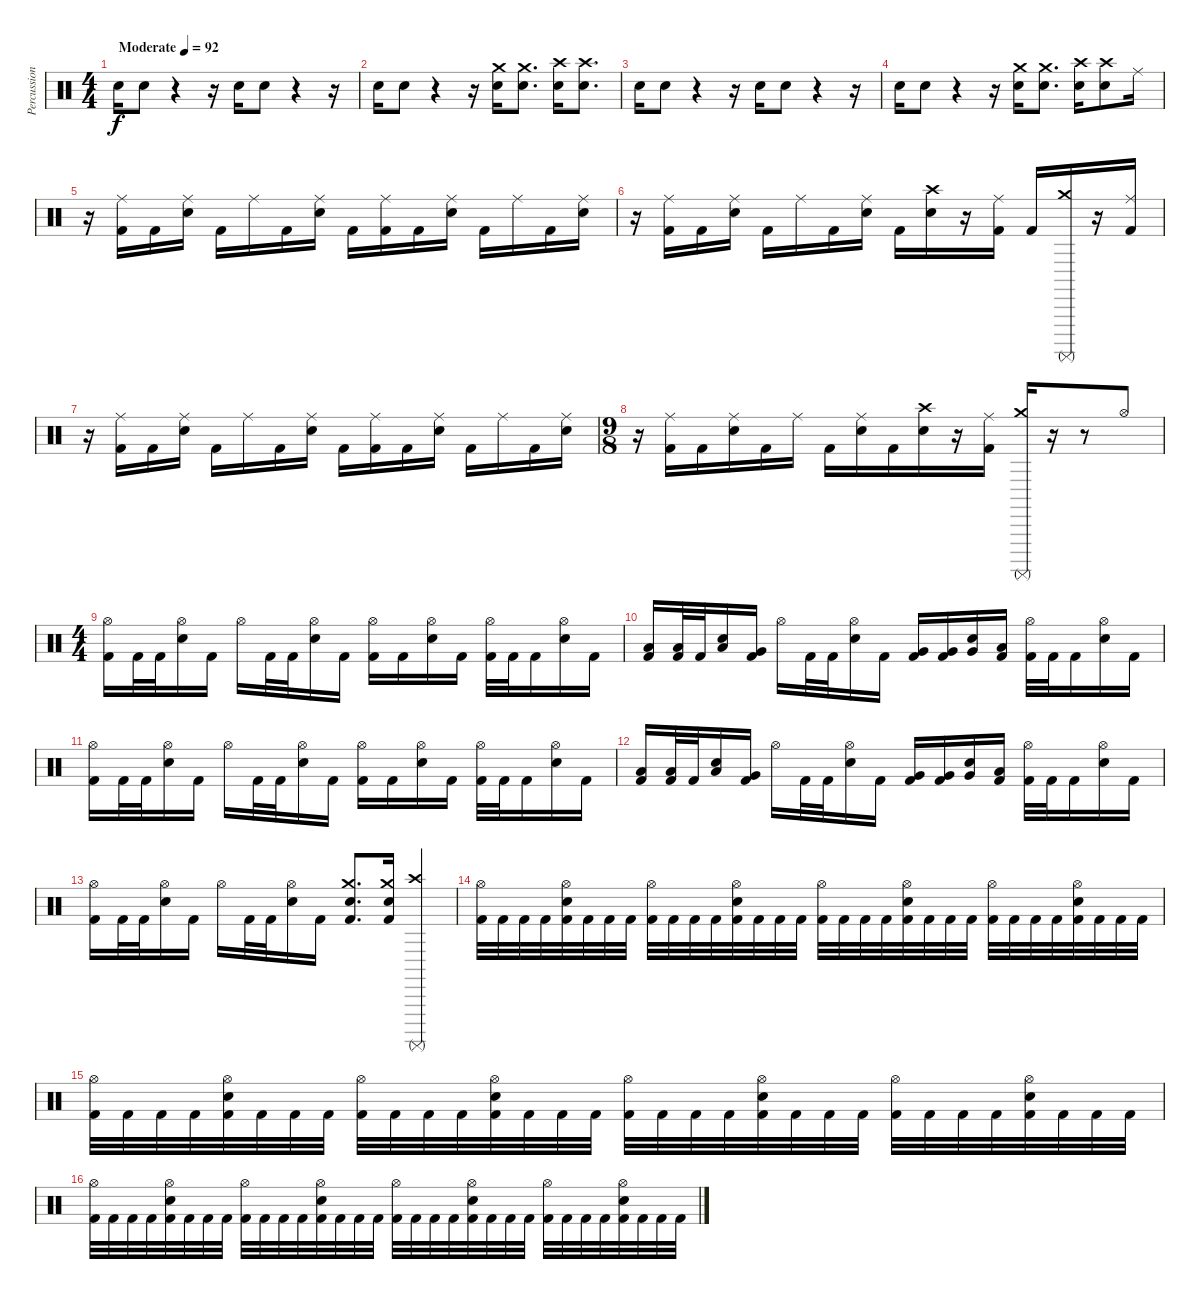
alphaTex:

\track ("Percussion" "Percussion") {instrument percussion}
\staff {score}
\articulation defaults
\ts (4 4)
\tempo (92 "Moderate")
\clef neutral
\ks c "Snare (hit) 2".16{dy f} "Snare (hit) 2".8
r.4 r.16 "Snare (hit) 2".16 "Snare (hit) 2".8 r.4 r.16 |
"Snare (hit) 2".16 "Snare (hit) 2".8 r.4 r.16 ("Crash medium (hit)" "Snare (hit) 2").16 ("Crash medium (hit)" "Snare (hit) 2").8{d} ("Crash high (hit)" "Snare (hit) 2").16 ("Crash high (hit)" "Snare (hit) 2").8{d} |
"Snare (hit) 2".16 "Snare (hit) 2".8 r.4 r.16 "Snare (hit) 2".16 "Snare (hit) 2".8 r.4 r.16 |
"Snare (hit) 2".16 "Snare (hit) 2".8 r.4 r.16 ("Crash medium (hit)" "Snare (hit) 2").16 ("Crash medium (hit)" "Snare (hit) 2").8{d} ("Crash high (hit)" "Snare (hit) 2").16 ("Crash high (hit)" "Snare (hit) 2").8 "Ride (middle)".16 |
r.16 ("Kick (hit) 2" "Ride (middle)").16 "Kick (hit) 2".16 ("Electric Snare (hit)" "Ride (middle)").16 "Kick (hit) 2".16 "Ride (middle)".16 "Kick (hit) 2".16 ("Electric Snare (hit)" "Ride (middle)").16 "Kick (hit) 2".16 ("Kick (hit) 2" "Ride (middle)").16 "Kick (hit) 2".16 ("Electric Snare (hit)" "Ride (middle)").16 "Kick (hit) 2".16 "Ride (middle)".16 "Kick (hit) 2".16 ("Electric Snare (hit)" "Ride (middle)").16 |
r.16 ("Kick (hit) 2" "Ride (middle)").16 "Kick (hit) 2".16 ("Electric Snare (hit)" "Ride (middle)").16 "Kick (hit) 2".16 "Ride (middle)".16 "Kick (hit) 2".16 ("Electric Snare (hit)" "Ride (middle)").16 "Kick (hit) 2".16 ("Electric Snare (hit)" "Crash high (hit)").16 r.16 ("Kick (hit) 2" "Ride (middle)").16 "Kick (hit) 2".16 ("Surdo (mute)" "Crash medium (hit)").16 r.16 ("Kick (hit) 2" "Ride (middle)").16 |
r.16 ("Kick (hit) 2" "Ride (middle)").16 "Kick (hit) 2".16 ("Electric Snare (hit)" "Ride (middle)").16 "Kick (hit) 2".16 "Ride (middle)".16 "Kick (hit) 2".16 ("Electric Snare (hit)" "Ride (middle)").16 "Kick (hit) 2".16 ("Kick (hit) 2" "Ride (middle)").16 "Kick (hit) 2".16 ("Electric Snare (hit)" "Ride (middle)").16 "Kick (hit) 2".16 "Ride (middle)".16 "Kick (hit) 2".16 ("Electric Snare (hit)" "Ride (middle)").16 |
\ts (9 8)
r.16 ("Kick (hit) 2" "Ride (middle)").16 "Kick (hit) 2".16 ("Electric Snare (hit)" "Ride (middle)").16 "Kick (hit) 2".16 "Ride (middle)".16 "Kick (hit) 2".16 ("Electric Snare (hit)" "Ride (middle)").16 "Kick (hit) 2".16 ("Electric Snare (hit)" "Crash high (hit)").16 r.16 ("Kick (hit) 2" "Ride (middle)").16 ("Surdo (mute)" "Crash medium (hit)").16 r.16 r.8 "Hi-Hat (open)".8 |
\ts (4 4)
("Kick (hit) 2" "Hi-Hat (open)").16 "Kick (hit) 2".32 "Kick (hit) 2".32 ("Electric Snare (hit)" "Hi-Hat (open)").16 "Kick (hit) 2".16 "Hi-Hat (open)".16 "Kick (hit) 2".32 "Kick (hit) 2".32 ("Electric Snare (hit)" "Hi-Hat (open)").16 "Kick (hit) 2".16 ("Kick (hit) 2" "Hi-Hat (open)").16 "Kick (hit) 2".16 ("Electric Snare (hit)" "Hi-Hat (open)").16 "Kick (hit) 2".16 ("Kick (hit) 2" "Hi-Hat (open)").32 "Kick (hit) 2".32 "Kick (hit) 2".16 ("Electric Snare (hit)" "Hi-Hat (open)").16 "Kick (hit) 2".16 |
("Kick (hit) 2" "Low Tom (hit)").16 ("Kick (hit) 2" "Low Tom (hit)").32 "Kick (hit) 2".32 ("Electric Snare (hit)" "Low Tom (hit)").16 ("Kick (hit) 2" "Very Low Tom (hit)").16 "Hi-Hat (open)".16 "Kick (hit) 2".32 "Kick (hit) 2".32 ("Electric Snare (hit)" "Hi-Hat (open)").16 "Kick (hit) 2".16 ("Kick (hit) 2" "Very Low Tom (hit)").16 ("Kick (hit) 2" "Very Low Tom (hit)").16 ("Electric Snare (hit)" "Very Low Tom (hit)").16 ("Kick (hit) 2" "Low Floor Tom (hit)").16 ("Kick (hit) 2" "Hi-Hat (open)").32 "Kick (hit) 2".32 "Kick (hit) 2".16 ("Electric Snare (hit)" "Hi-Hat (open)").16 "Kick (hit) 2".16 |
("Kick (hit) 2" "Hi-Hat (open)").16 "Kick (hit) 2".32 "Kick (hit) 2".32 ("Electric Snare (hit)" "Hi-Hat (open)").16 "Kick (hit) 2".16 "Hi-Hat (open)".16 "Kick (hit) 2".32 "Kick (hit) 2".32 ("Electric Snare (hit)" "Hi-Hat (open)").16 "Kick (hit) 2".16 ("Kick (hit) 2" "Hi-Hat (open)").16 "Kick (hit) 2".16 ("Electric Snare (hit)" "Hi-Hat (open)").16 "Kick (hit) 2".16 ("Kick (hit) 2" "Hi-Hat (open)").32 "Kick (hit) 2".32 "Kick (hit) 2".16 ("Electric Snare (hit)" "Hi-Hat (open)").16 "Kick (hit) 2".16 |
("Kick (hit) 2" "Low Tom (hit)").16 ("Kick (hit) 2" "Low Tom (hit)").32 "Kick (hit) 2".32 ("Electric Snare (hit)" "Low Tom (hit)").16 ("Kick (hit) 2" "Very Low Tom (hit)").16 "Hi-Hat (open)".16 "Kick (hit) 2".32 "Kick (hit) 2".32 ("Electric Snare (hit)" "Hi-Hat (open)").16 "Kick (hit) 2".16 ("Kick (hit) 2" "Very Low Tom (hit)").16 ("Kick (hit) 2" "Very Low Tom (hit)").16 ("Electric Snare (hit)" "Very Low Tom (hit)").16 ("Kick (hit) 2" "Low Floor Tom (hit)").16 ("Kick (hit) 2" "Hi-Hat (open)").32 "Kick (hit) 2".32 "Kick (hit) 2".16 ("Electric Snare (hit)" "Hi-Hat (open)").16 "Kick (hit) 2".16 |
("Kick (hit) 2" "Hi-Hat (open)").16 "Kick (hit) 2".32 "Kick (hit) 2".32 ("Electric Snare (hit)" "Hi-Hat (open)").16 "Kick (hit) 2".16 "Hi-Hat (open)".16 "Kick (hit) 2".32 "Kick (hit) 2".32 ("Electric Snare (hit)" "Hi-Hat (open)").16 "Kick (hit) 2".16 ("Snare (hit) 2" "Crash medium (hit)" "Kick (hit) 2").8{d} ("Snare (hit) 2" "Crash medium (hit)" "Kick (hit) 2").16 ("Surdo (mute)" "Crash high (hit)").4 |
("Kick (hit) 2" "Hi-Hat (open)").32 "Kick (hit) 2".32 "Kick (hit) 2".32 "Kick (hit) 2".32 ("Kick (hit) 2" "Electric Snare (hit)" "Hi-Hat (open)").32 "Kick (hit) 2".32 "Kick (hit) 2".32 "Kick (hit) 2".32 ("Kick (hit) 2" "Hi-Hat (open)").32 "Kick (hit) 2".32 "Kick (hit) 2".32 "Kick (hit) 2".32 ("Kick (hit) 2" "Electric Snare (hit)" "Hi-Hat (open)").32 "Kick (hit) 2".32 "Kick (hit) 2".32 "Kick (hit) 2".32 ("Kick (hit) 2" "Hi-Hat (open)").32 "Kick (hit) 2".32 "Kick (hit) 2".32 "Kick (hit) 2".32 ("Kick (hit) 2" "Electric Snare (hit)" "Hi-Hat (open)").32 "Kick (hit) 2".32 "Kick (hit) 2".32 "Kick (hit) 2".32 ("Kick (hit) 2" "Hi-Hat (open)").32 "Kick (hit) 2".32 "Kick (hit) 2".32 "Kick (hit) 2".32 ("Kick (hit) 2" "Electric Snare (hit)" "Hi-Hat (open)").32 "Kick (hit) 2".32 "Kick (hit) 2".32 "Kick (hit) 2".32 |
("Kick (hit) 2" "Hi-Hat (open)").32 "Kick (hit) 2".32 "Kick (hit) 2".32 "Kick (hit) 2".32 ("Kick (hit) 2" "Electric Snare (hit)" "Hi-Hat (open)").32 "Kick (hit) 2".32 "Kick (hit) 2".32 "Kick (hit) 2".32 ("Kick (hit) 2" "Hi-Hat (open)").32 "Kick (hit) 2".32 "Kick (hit) 2".32 "Kick (hit) 2".32 ("Kick (hit) 2" "Electric Snare (hit)" "Hi-Hat (open)").32 "Kick (hit) 2".32 "Kick (hit) 2".32 "Kick (hit) 2".32 ("Kick (hit) 2" "Hi-Hat (open)").32 "Kick (hit) 2".32 "Kick (hit) 2".32 "Kick (hit) 2".32 ("Kick (hit) 2" "Electric Snare (hit)" "Hi-Hat (open)").32 "Kick (hit) 2".32 "Kick (hit) 2".32 "Kick (hit) 2".32 ("Kick (hit) 2" "Hi-Hat (open)").32 "Kick (hit) 2".32 "Kick (hit) 2".32 "Kick (hit) 2".32 ("Kick (hit) 2" "Electric Snare (hit)" "Hi-Hat (open)").32 "Kick (hit) 2".32 "Kick (hit) 2".32 "Kick (hit) 2".32 |
("Kick (hit) 2" "Hi-Hat (open)").32 "Kick (hit) 2".32 "Kick (hit) 2".32 "Kick (hit) 2".32 ("Kick (hit) 2" "Electric Snare (hit)" "Hi-Hat (open)").32 "Kick (hit) 2".32 "Kick (hit) 2".32 "Kick (hit) 2".32 ("Kick (hit) 2" "Hi-Hat (open)").32 "Kick (hit) 2".32 "Kick (hit) 2".32 "Kick (hit) 2".32 ("Kick (hit) 2" "Electric Snare (hit)" "Hi-Hat (open)").32 "Kick (hit) 2".32 "Kick (hit) 2".32 "Kick (hit) 2".32 ("Kick (hit) 2" "Hi-Hat (open)").32 "Kick (hit) 2".32 "Kick (hit) 2".32 "Kick (hit) 2".32 ("Kick (hit) 2" "Electric Snare (hit)" "Hi-Hat (open)").32 "Kick (hit) 2".32 "Kick (hit) 2".32 "Kick (hit) 2".32 ("Kick (hit) 2" "Hi-Hat (open)").32 "Kick (hit) 2".32 "Kick (hit) 2".32 "Kick (hit) 2".32 ("Kick (hit) 2" "Electric Snare (hit)" "Hi-Hat (open)").32 "Kick (hit) 2".32 "Kick (hit) 2".32 "Kick (hit) 2".32
